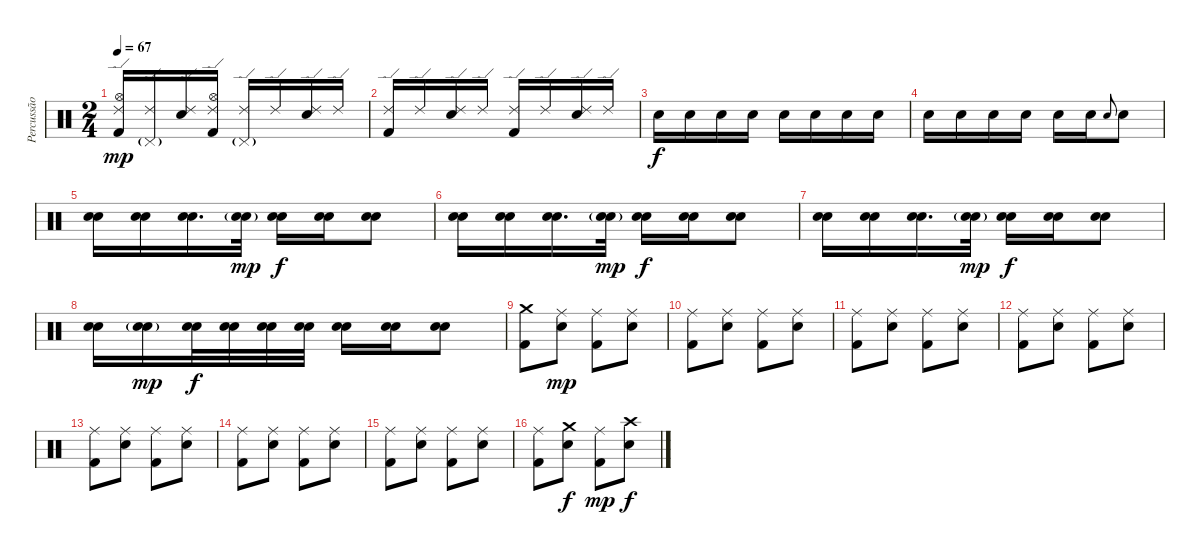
\track ("Percussão" "Percussão") {instrument percussion}
\staff {score}
\articulation defaults
\ts (2 4)
\tempo 67
\clef neutral
\ks c
("Ride (edge) 2" "Hi-Hat (open)" "Kick (hit) 2").16{dy mp} ("Ride (edge) 2" "Pedal Hi-Hat (hit)"{g}).16 ("Ride (edge) 2" "Snare (hit) 2").16 ("Ride (edge) 2" "Hi-Hat (open)" "Kick (hit) 2").16 ("Ride (edge) 2" "Pedal Hi-Hat (hit)"{g}).16 "Ride (edge) 2".16 ("Ride (edge) 2" "Snare (hit) 2").16 "Ride (edge) 2".16 |
("Ride (edge) 2" "Kick (hit) 2").16 "Ride (edge) 2".16 ("Ride (edge) 2" "Snare (hit) 2").16 "Ride (edge) 2".16 ("Ride (edge) 2" "Kick (hit) 2").16 "Ride (edge) 2".16 ("Ride (edge) 2" "Snare (hit) 2").16 "Ride (edge) 2".16 |
"Snare (hit) 2".16{dy f volume 4} "Snare (hit) 2".16{volume 13} "Snare (hit) 2".16 "Snare (hit) 2".16 "Snare (hit) 2".16 "Snare (hit) 2".16 "Snare (hit) 2".16 "Snare (hit) 2".16 |
"Snare (hit) 2".16 "Snare (hit) 2".16 "Snare (hit) 2".16 "Snare (hit) 2".16 "Snare (hit) 2".16 "Snare (hit) 2".16 "Snare (hit) 2".8{gr onbeat} "Snare (hit) 2".8 |
("Snare (hit) 2" "Electric Snare (hit)").16 ("Snare (hit) 2" "Electric Snare (hit)").16 ("Snare (hit) 2" "Electric Snare (hit)").16{d} ("Snare (hit) 2"{g} "Electric Snare (hit)"{g}).32{dy mp} ("Snare (hit) 2" "Electric Snare (hit)").16{dy f} ("Snare (hit) 2" "Electric Snare (hit)").16 ("Snare (hit) 2" "Electric Snare (hit)").8 |
("Snare (hit) 2" "Electric Snare (hit)").16 ("Snare (hit) 2" "Electric Snare (hit)").16 ("Snare (hit) 2" "Electric Snare (hit)").16{d} ("Snare (hit) 2"{g} "Electric Snare (hit)"{g}).32{dy mp} ("Snare (hit) 2" "Electric Snare (hit)").16{dy f} ("Snare (hit) 2" "Electric Snare (hit)").16 ("Snare (hit) 2" "Electric Snare (hit)").8 |
("Snare (hit) 2" "Electric Snare (hit)").16 ("Snare (hit) 2" "Electric Snare (hit)").16 ("Snare (hit) 2" "Electric Snare (hit)").16{d} ("Snare (hit) 2"{g} "Electric Snare (hit)"{g}).32{dy mp} ("Snare (hit) 2" "Electric Snare (hit)").16{dy f} ("Snare (hit) 2" "Electric Snare (hit)").16 ("Snare (hit) 2" "Electric Snare (hit)").8 |
("Snare (hit) 2" "Electric Snare (hit)").16 ("Snare (hit) 2"{g} "Electric Snare (hit)"{g}).16{dy mp} ("Snare (hit) 2" "Electric Snare (hit)").32{dy f} ("Snare (hit) 2" "Electric Snare (hit)").32 ("Snare (hit) 2" "Electric Snare (hit)").32 ("Snare (hit) 2" "Electric Snare (hit)").32 ("Snare (hit) 2" "Electric Snare (hit)").16 ("Snare (hit) 2" "Electric Snare (hit)").16 ("Snare (hit) 2" "Electric Snare (hit)").8 |
("Crash medium (hit)" "Kick (hit) 2").8 ("Ride (middle)" "Snare (hit) 2").8{dy mp} ("Ride (middle)" "Kick (hit) 2").8 ("Ride (middle)" "Snare (hit) 2").8 |
("Ride (middle)" "Kick (hit) 2").8 ("Ride (middle)" "Snare (hit) 2").8 ("Ride (middle)" "Kick (hit) 2").8 ("Ride (middle)" "Snare (hit) 2").8 |
("Ride (middle)" "Kick (hit) 2").8 ("Ride (middle)" "Snare (hit) 2").8 ("Ride (middle)" "Kick (hit) 2").8 ("Ride (middle)" "Snare (hit) 2").8 |
("Ride (middle)" "Kick (hit) 2").8 ("Ride (middle)" "Snare (hit) 2").8 ("Ride (middle)" "Kick (hit) 2").8 ("Ride (middle)" "Snare (hit) 2").8 |
("Ride (middle)" "Kick (hit) 2").8 ("Ride (middle)" "Snare (hit) 2").8 ("Ride (middle)" "Kick (hit) 2").8 ("Ride (middle)" "Snare (hit) 2").8 |
("Ride (middle)" "Kick (hit) 2").8 ("Ride (middle)" "Snare (hit) 2").8 ("Ride (middle)" "Kick (hit) 2").8 ("Ride (middle)" "Snare (hit) 2").8 |
("Ride (middle)" "Kick (hit) 2").8 ("Ride (middle)" "Snare (hit) 2").8 ("Ride (middle)" "Kick (hit) 2").8 ("Ride (middle)" "Snare (hit) 2").8 |
("Ride (middle)" "Kick (hit) 2").8 ("Crash medium (hit)" "Snare (hit) 2").8{dy f} ("Ride (middle)" "Kick (hit) 2").8{dy mp} ("Crash high (hit)" "Snare (hit) 2").8{dy f}
